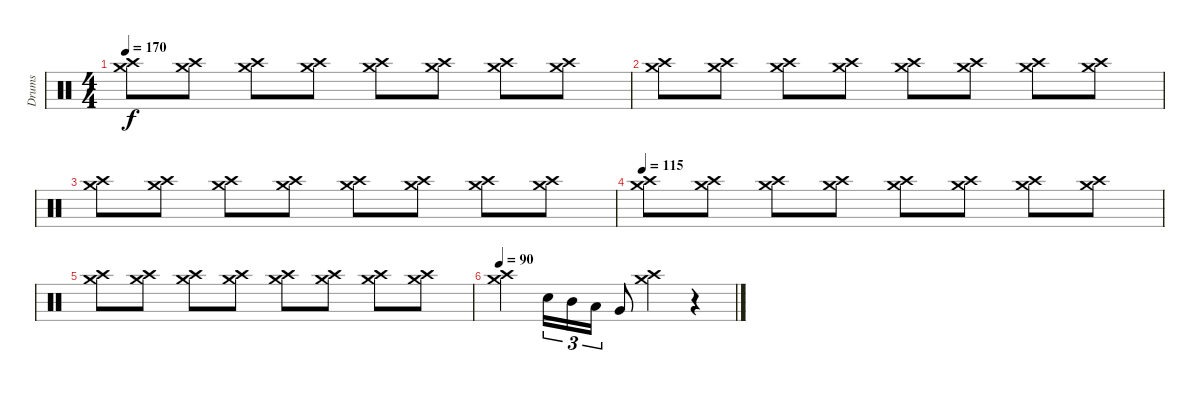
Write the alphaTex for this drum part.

\track ("Drums" "Drums") {instrument percussion}
\staff {score}
\articulation defaults
\ts (4 4)
\tempo 170
\clef neutral
\ks c
("Crash medium (hit)" "Crash high (hit)").8{dy f} ("Crash medium (hit)" "Crash high (hit)").8 ("Crash medium (hit)" "Crash high (hit)").8 ("Crash medium (hit)" "Crash high (hit)").8 ("Crash medium (hit)" "Crash high (hit)").8 ("Crash medium (hit)" "Crash high (hit)").8 ("Crash medium (hit)" "Crash high (hit)").8 ("Crash medium (hit)" "Crash high (hit)").8 |
("Crash medium (hit)" "Crash high (hit)").8 ("Crash medium (hit)" "Crash high (hit)").8 ("Crash medium (hit)" "Crash high (hit)").8 ("Crash medium (hit)" "Crash high (hit)").8 ("Crash medium (hit)" "Crash high (hit)").8 ("Crash medium (hit)" "Crash high (hit)").8 ("Crash medium (hit)" "Crash high (hit)").8 ("Crash medium (hit)" "Crash high (hit)").8 |
("Crash medium (hit)" "Crash high (hit)").8 ("Crash medium (hit)" "Crash high (hit)").8 ("Crash medium (hit)" "Crash high (hit)").8 ("Crash medium (hit)" "Crash high (hit)").8 ("Crash medium (hit)" "Crash high (hit)").8 ("Crash medium (hit)" "Crash high (hit)").8 ("Crash medium (hit)" "Crash high (hit)").8 ("Crash medium (hit)" "Crash high (hit)").8 |
\tempo 115
("Crash medium (hit)" "Crash high (hit)").8 ("Crash medium (hit)" "Crash high (hit)").8 ("Crash medium (hit)" "Crash high (hit)").8 ("Crash medium (hit)" "Crash high (hit)").8 ("Crash medium (hit)" "Crash high (hit)").8 ("Crash medium (hit)" "Crash high (hit)").8 ("Crash medium (hit)" "Crash high (hit)").8 ("Crash medium (hit)" "Crash high (hit)").8 |
("Crash medium (hit)" "Crash high (hit)").8 ("Crash medium (hit)" "Crash high (hit)").8 ("Crash medium (hit)" "Crash high (hit)").8 ("Crash medium (hit)" "Crash high (hit)").8 ("Crash medium (hit)" "Crash high (hit)").8 ("Crash medium (hit)" "Crash high (hit)").8 ("Crash medium (hit)" "Crash high (hit)").8 ("Crash medium (hit)" "Crash high (hit)").8 |
\tempo 90
("Crash high (hit)" "Crash medium (hit)").4 "Snare (hit) 2".16{tu (3 2)} "Mid Tom (hit)".16{tu (3 2)} "Low Tom (hit)".16{tu (3 2)} "Very Low Tom (hit)".8 ("Crash high (hit)" "Crash medium (hit)").4 r.4
